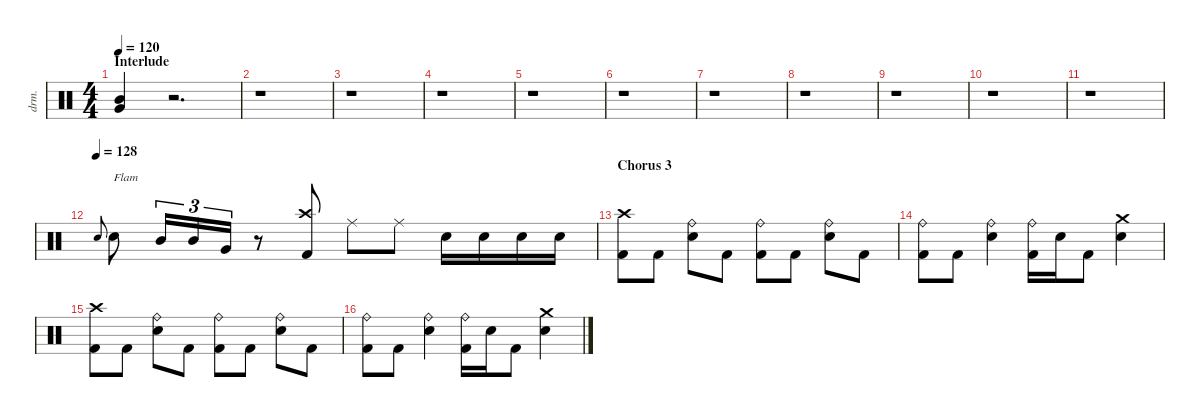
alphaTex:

\defaultSystemsLayout 4
\hideDynamics
\bracketExtendMode nobrackets
\otherSystemsTrackNameOrientation horizontal
\track ("Jimmy Chamberlin" "drm.") {instrument percussion}
\staff {score}
\articulation defaults
\ts (4 4)
\section ("" "Interlude")
\tempo 120
\clef neutral
\ks c
("Very Low Tom (hit)" "Mid Tom (hit)").4{dy mf beam Up} r.2{d beam Up} |
r.1{beam Down} |
r.1{beam Down} |
r.1{beam Down} |
r.1{beam Down} |
r.1{beam Down} |
r.1{beam Down} |
r.1{beam Down} |
r.1{beam Down} |
r.1{beam Down} |
r.1{beam Down} |
\tempo (128)
"Snare (hit) 2".8{gr onbeat beam Up} "Snare (hit) 2".8{txt "Flam" beam Down} "Mid Tom (hit)".16{tu (3 2) beam Up} "Mid Tom (hit)".16{tu (3 2) beam Up} "Very Low Tom (hit)".16{tu (3 2) beam Up} r.8{beam Up} ("Kick (hit) 2" "Crash high (hit)").8{beam Down} "Ride (middle)".8{beam Down} "Ride (middle)".8{beam Down} "Snare (hit) 2".16{beam Down} "Snare (hit) 2".16{beam Down} "Snare (hit) 2".16{beam Down} "Snare (hit) 2".16{beam Down} |
\section ("" "Chorus 3")
("Kick (hit) 2" "Crash high (hit)").8{beam Down} "Kick (hit) 2".8{beam Down} ("Ride (bell)" "Snare (hit) 2").8{beam Down} "Kick (hit) 2".8{beam Down} ("Kick (hit) 2" "Ride (bell)").8{beam Down} "Kick (hit) 2".8{beam Down} ("Ride (bell)" "Snare (hit) 2").8{beam Down} "Kick (hit) 2".8{beam Down} |
("Kick (hit) 2" "Ride (bell)").8{beam Down} "Kick (hit) 2".8{beam Down} ("Ride (bell)" "Snare (hit) 2").4{beam Down} ("Kick (hit) 2" "Ride (bell)").16{beam Down} "Snare (hit) 2".16{beam Down} "Kick (hit) 2".8{beam Down} ("Crash medium (hit)" "Snare (hit) 2").4{beam Down} |
("Kick (hit) 2" "Crash high (hit)").8{beam Down} "Kick (hit) 2".8{beam Down} ("Ride (bell)" "Snare (hit) 2").8{beam Down} "Kick (hit) 2".8{beam Down} ("Kick (hit) 2" "Ride (bell)").8{beam Down} "Kick (hit) 2".8{beam Down} ("Ride (bell)" "Snare (hit) 2").8{beam Down} "Kick (hit) 2".8{beam Down} |
("Kick (hit) 2" "Ride (bell)").8{beam Down} "Kick (hit) 2".8{beam Down} ("Ride (bell)" "Snare (hit) 2").4{beam Down} ("Kick (hit) 2" "Ride (bell)").16{beam Down} "Snare (hit) 2".16{beam Down} "Kick (hit) 2".8{beam Down} ("Crash medium (hit)" "Snare (hit) 2").4{beam Down}
